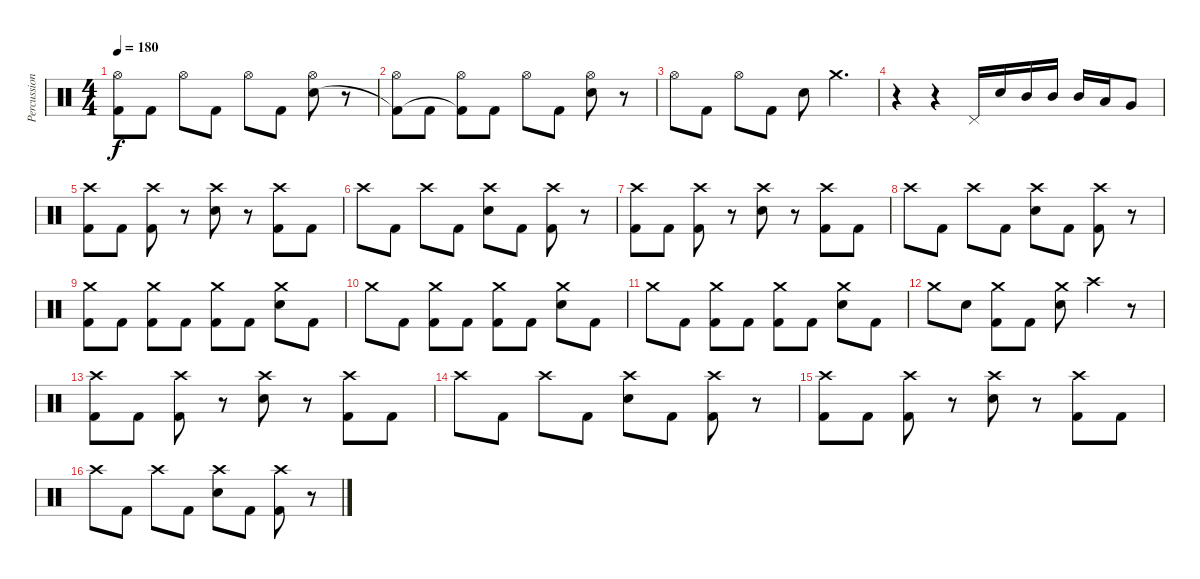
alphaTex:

\track ("Percussion" "Percussion") {instrument percussion}
\staff {score}
\articulation defaults
\ts (4 4)
\tempo 180
\clef neutral
\ks c
("Hi-Hat (open)" "Kick (hit) 2"{t}).8{dy f} "Kick (hit) 2".8 "Hi-Hat (open)".8 "Kick (hit) 2".8 "Hi-Hat (open)".8 "Kick (hit) 2".8 ("Hi-Hat (open)" "Snare (hit) 2").8 r.8 |
("Hi-Hat (open)" "Kick (hit) 2"{t}).8 "Kick (hit) 2".8 ("Hi-Hat (open)" "Kick (hit) 2"{t}).8 "Kick (hit) 2".8 "Hi-Hat (open)".8 "Kick (hit) 2".8 ("Hi-Hat (open)" "Snare (hit) 2").8 r.8 |
"Hi-Hat (open)".8 "Kick (hit) 2".8 "Hi-Hat (open)".8 "Kick (hit) 2".8 "Snare (hit) 2".8 "Crash medium (hit)".4{d} |
r.4 r.4 "Pedal Hi-Hat (hit)".16 "Snare (hit) 2".16 "Mid Tom (hit)".16 "Mid Tom (hit)".16 "Mid Tom (hit)".16 "Low Tom (hit)".16 "Very Low Tom (hit)".8 |
("Crash high (hit)" "Kick (hit) 2").8 "Kick (hit) 2".8 ("Crash high (hit)" "Kick (hit) 2").8 r.8 ("Crash high (hit)" "Snare (hit) 2").8 r.8 ("Crash high (hit)" "Kick (hit) 2").8 "Kick (hit) 2".8 |
"Crash high (hit)".8 "Kick (hit) 2".8 "Crash high (hit)".8 "Kick (hit) 2".8 ("Crash high (hit)" "Snare (hit) 2").8 "Kick (hit) 2".8 ("Crash high (hit)" "Kick (hit) 2").8 r.8 |
("Crash high (hit)" "Kick (hit) 2").8 "Kick (hit) 2".8 ("Crash high (hit)" "Kick (hit) 2").8 r.8 ("Crash high (hit)" "Snare (hit) 2").8 r.8 ("Crash high (hit)" "Kick (hit) 2").8 "Kick (hit) 2".8 |
"Crash high (hit)".8 "Kick (hit) 2".8 "Crash high (hit)".8 "Kick (hit) 2".8 ("Crash high (hit)" "Snare (hit) 2").8 "Kick (hit) 2".8 ("Crash high (hit)" "Kick (hit) 2").8 r.8 |
("Crash medium (hit)" "Kick (hit) 2").8 "Kick (hit) 2".8 ("Crash medium (hit)" "Kick (hit) 2").8 "Kick (hit) 2".8 ("Crash medium (hit)" "Kick (hit) 2").8 "Kick (hit) 2".8 ("Crash medium (hit)" "Snare (hit) 2").8 "Kick (hit) 2".8 |
"Crash medium (hit)".8 "Kick (hit) 2".8 ("Crash medium (hit)" "Kick (hit) 2").8 "Kick (hit) 2".8 ("Crash medium (hit)" "Kick (hit) 2").8 "Kick (hit) 2".8 ("Crash medium (hit)" "Snare (hit) 2").8 "Kick (hit) 2".8 |
"Crash medium (hit)".8 "Kick (hit) 2".8 ("Crash medium (hit)" "Kick (hit) 2").8 "Kick (hit) 2".8 ("Crash medium (hit)" "Kick (hit) 2").8 "Kick (hit) 2".8 ("Crash medium (hit)" "Snare (hit) 2").8 "Kick (hit) 2".8 |
"Crash medium (hit)".8 "Snare (hit) 2".8 ("Crash medium (hit)" "Kick (hit) 2").8 "Kick (hit) 2".8 ("Crash medium (hit)" "Snare (hit) 2").8 "Crash high (hit)".4 r.8 |
("Crash high (hit)" "Kick (hit) 2").8 "Kick (hit) 2".8 ("Crash high (hit)" "Kick (hit) 2").8 r.8 ("Crash high (hit)" "Snare (hit) 2").8 r.8 ("Crash high (hit)" "Kick (hit) 2").8 "Kick (hit) 2".8 |
"Crash high (hit)".8 "Kick (hit) 2".8 "Crash high (hit)".8 "Kick (hit) 2".8 ("Crash high (hit)" "Snare (hit) 2").8 "Kick (hit) 2".8 ("Crash high (hit)" "Kick (hit) 2").8 r.8 |
("Crash high (hit)" "Kick (hit) 2").8 "Kick (hit) 2".8 ("Crash high (hit)" "Kick (hit) 2").8 r.8 ("Crash high (hit)" "Snare (hit) 2").8 r.8 ("Crash high (hit)" "Kick (hit) 2").8 "Kick (hit) 2".8 |
"Crash high (hit)".8 "Kick (hit) 2".8 "Crash high (hit)".8 "Kick (hit) 2".8 ("Crash high (hit)" "Snare (hit) 2").8 "Kick (hit) 2".8 ("Crash high (hit)" "Kick (hit) 2").8 r.8
